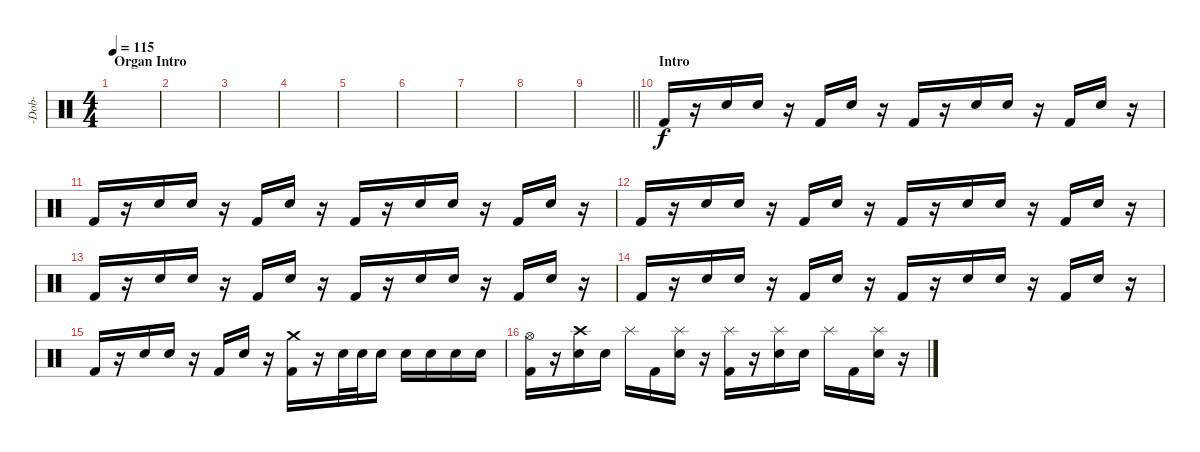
\track ("-Dob-" "-Dob-") {instrument percussion}
\staff {score}
\articulation defaults
\ts (4 4)
\section ("" "Organ Intro")
\tempo 115
\clef neutral
\ks c
|
|
|
|
|
|
|
|
\barLineRight lightlight
|
\section ("" "Intro")
"Kick (hit) 2".16 r.16 "Snare (hit) 2".16 "Snare (hit) 2".16 r.16 "Kick (hit) 2".16 "Snare (hit) 2".16 r.16 "Kick (hit) 2".16 r.16 "Snare (hit) 2".16 "Snare (hit) 2".16 r.16 "Kick (hit) 2".16 "Snare (hit) 2".16 r.16 |
"Kick (hit) 2".16 r.16 "Snare (hit) 2".16 "Snare (hit) 2".16 r.16 "Kick (hit) 2".16 "Snare (hit) 2".16 r.16 "Kick (hit) 2".16 r.16 "Snare (hit) 2".16 "Snare (hit) 2".16 r.16 "Kick (hit) 2".16 "Snare (hit) 2".16 r.16 |
"Kick (hit) 2".16 r.16 "Snare (hit) 2".16 "Snare (hit) 2".16 r.16 "Kick (hit) 2".16 "Snare (hit) 2".16 r.16 "Kick (hit) 2".16 r.16 "Snare (hit) 2".16 "Snare (hit) 2".16 r.16 "Kick (hit) 2".16 "Snare (hit) 2".16 r.16 |
"Kick (hit) 2".16 r.16 "Snare (hit) 2".16 "Snare (hit) 2".16 r.16 "Kick (hit) 2".16 "Snare (hit) 2".16 r.16 "Kick (hit) 2".16 r.16 "Snare (hit) 2".16 "Snare (hit) 2".16 r.16 "Kick (hit) 2".16 "Snare (hit) 2".16 r.16 |
"Kick (hit) 2".16 r.16 "Snare (hit) 2".16 "Snare (hit) 2".16 r.16 "Kick (hit) 2".16 "Snare (hit) 2".16 r.16 "Kick (hit) 2".16 r.16 "Snare (hit) 2".16 "Snare (hit) 2".16 r.16 "Kick (hit) 2".16 "Snare (hit) 2".16 r.16 |
"Kick (hit) 2".16 r.16 "Snare (hit) 2".16 "Snare (hit) 2".16 r.16 "Kick (hit) 2".16 "Snare (hit) 2".16 r.16 ("Crash medium (hit)" "Kick (hit) 2").16 r.16 "Snare (hit) 2".32 "Snare (hit) 2".32 "Snare (hit) 2".16 "Snare (hit) 2".16 "Snare (hit) 2".16 "Snare (hit) 2".16 "Snare (hit) 2".16 |
("Hi-Hat (open)" "Kick (hit) 2").16 r.16 ("Crash high (hit)" "Snare (hit) 2").16 "Snare (hit) 2".16 "Splash (hit)".16 "Kick (hit) 2".16 ("Splash (hit)" "Snare (hit) 2").16 r.16 ("Splash (hit)" "Kick (hit) 2").16 r.16 ("Splash (hit)" "Snare (hit) 2").16 "Snare (hit) 2".16 "Splash (hit)".16 "Kick (hit) 2".16 ("Splash (hit)" "Snare (hit) 2").16 r.16
